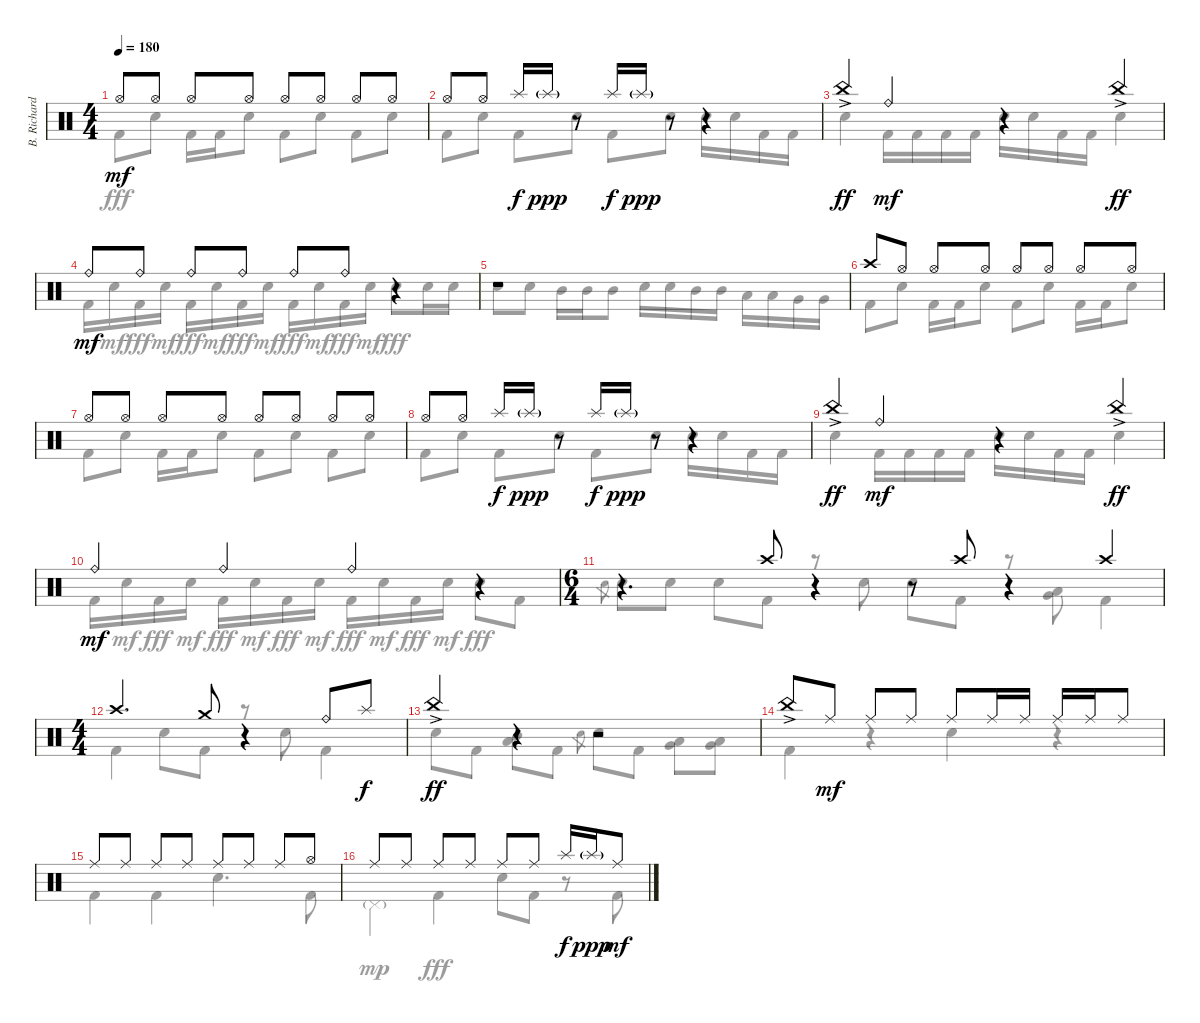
\track ("B. Richardson Drums" "B. Richard") {instrument percussion}
\staff {score}
\articulation defaults
\voice
\ts (4 4)
\tempo 180
\clef neutral
\ks c "Hi-Hat (open)".8{dy mf} "Hi-Hat (open)".8 "Hi-Hat (open)".8 "Hi-Hat (open)".8 "Hi-Hat (open)".8 "Hi-Hat (open)".8 "Hi-Hat (open)".8 "Hi-Hat (open)".8
|
"Hi-Hat (open)".8 "Hi-Hat (open)".8 "Splash (hit)".16{dy f} "Splash (hit)"{g}.16{dy ppp} r.8 "Splash (hit)".16{dy f} "Splash (hit)"{g}.16{dy ppp} r.8 r.4 |
"China (hit)"{ac}.4{dy ff} "Ride (bell)".4{dy mf} r.4 "China (hit)"{ac}.4{dy ff} |
"Ride (bell)".8{dy mf} "Ride (bell)".8 "Ride (bell)".8 "Ride (bell)".8 "Ride (bell)".8 "Ride (bell)".8 r.4 |
r.1 |
"Crash high (hit)".8 "Hi-Hat (open)".8 "Hi-Hat (open)".8 "Hi-Hat (open)".8 "Hi-Hat (open)".8 "Hi-Hat (open)".8 "Hi-Hat (open)".8 "Hi-Hat (open)".8 |
"Hi-Hat (open)".8 "Hi-Hat (open)".8 "Hi-Hat (open)".8 "Hi-Hat (open)".8 "Hi-Hat (open)".8 "Hi-Hat (open)".8 "Hi-Hat (open)".8 "Hi-Hat (open)".8 |
"Hi-Hat (open)".8 "Hi-Hat (open)".8 "Splash (hit)".16{dy f} "Splash (hit)"{g}.16{dy ppp} r.8 "Splash (hit)".16{dy f} "Splash (hit)"{g}.16{dy ppp} r.8 r.4 |
"China (hit)"{ac}.4{dy ff} "Ride (bell)".4{dy mf} r.4 "China (hit)"{ac}.4{dy ff} |
"Ride (bell)".4{dy mf} "Ride (bell)".4 "Ride (bell)".4 r.4 |
\ts (6 4)
r.4{d} "Crash high (hit)".8 r.4 r.8 "Crash high (hit)".8 r.4 "Crash high (hit)".4 |
\ts (4 4)
"Crash high (hit)".4{d} "Crash medium (hit)".8 r.4 "Ride (bell)".8 "Splash (hit)".8{dy f} |
"China (hit)"{ac}.4{dy ff} r.4 r.2 |
"China (hit)"{ac}.8 "Ride (middle)".8{dy mf} "Ride (middle)".8 "Ride (middle)".8 "Ride (middle)".8 "Ride (middle)".16 "Ride (middle)".16 "Ride (middle)".16 "Ride (middle)".16 "Ride (middle)".8 |
"Ride (middle)".8 "Ride (middle)".8 "Ride (middle)".8 "Ride (middle)".8 "Ride (middle)".8 "Ride (middle)".8 "Ride (middle)".8 "Hi-Hat (open)".8 |
"Ride (middle)".8 "Ride (middle)".8 "Ride (middle)".8 "Ride (middle)".8 "Ride (middle)".8 "Ride (middle)".8 "Splash (hit)".16{dy f} "Splash (hit)"{g}.16{dy ppp} "Ride (middle)".8{dy mf}
\voice
\clef neutral
\ottava regular
\simile none
\ks c "Kick (hit) 2".8{dy fff} "Electric Snare (hit)".8 "Kick (hit) 2".16 "Kick (hit) 2".16 "Electric Snare (hit)".8 "Kick (hit) 2".8 "Electric Snare (hit)".8 "Kick (hit) 2".8 "Electric Snare (hit)".8
|
"Kick (hit) 2".8 "Electric Snare (hit)".8 "Kick (hit) 2".8 "Electric Snare (hit)".8 "Kick (hit) 2".8 "Electric Snare (hit)".8 "Electric Snare (hit)".16 "Electric Snare (hit)".16 "Kick (hit) 2".16 "Kick (hit) 2".16 |
"Electric Snare (hit)".4 "Kick (hit) 2".16 "Kick (hit) 2".16 "Kick (hit) 2".16 "Kick (hit) 2".16 "Electric Snare (hit)".16 "Electric Snare (hit)".16 "Kick (hit) 2".16 "Kick (hit) 2".16 "Electric Snare (hit)".4 |
"Kick (hit) 2".16 "Electric Snare (hit)".16{dy mf} "Kick (hit) 2".16{dy fff} "Electric Snare (hit)".16{dy mf} "Kick (hit) 2".16{dy fff} "Electric Snare (hit)".16{dy mf} "Kick (hit) 2".16{dy fff} "Electric Snare (hit)".16{dy mf} "Kick (hit) 2".16{dy fff} "Electric Snare (hit)".16{dy mf} "Kick (hit) 2".16{dy fff} "Electric Snare (hit)".16{dy mf} "Electric Snare (hit)".8{dy fff} "Electric Snare (hit)".16 "Electric Snare (hit)".16 |
"Electric Snare (hit)".8 "Electric Snare (hit)".8 "Mid Tom (hit)".16 "Mid Tom (hit)".16 "Mid Tom (hit)".8 "Electric Snare (hit)".16 "Electric Snare (hit)".16 "Mid Tom (hit)".16 "Mid Tom (hit)".16 "Low Tom (hit)".16 "Low Tom (hit)".16 "Very Low Tom (hit)".16 "Very Low Tom (hit)".16 |
"Kick (hit) 2".8 "Electric Snare (hit)".8 "Kick (hit) 2".16 "Kick (hit) 2".16 "Electric Snare (hit)".8 "Kick (hit) 2".8 "Electric Snare (hit)".8 "Kick (hit) 2".16 "Kick (hit) 2".16 "Electric Snare (hit)".8 |
"Kick (hit) 2".8 "Electric Snare (hit)".8 "Kick (hit) 2".16 "Kick (hit) 2".16 "Electric Snare (hit)".8 "Kick (hit) 2".8 "Electric Snare (hit)".8 "Kick (hit) 2".8 "Electric Snare (hit)".8 |
"Kick (hit) 2".8 "Electric Snare (hit)".8 "Kick (hit) 2".8 "Electric Snare (hit)".8 "Kick (hit) 2".8 "Electric Snare (hit)".8 "Electric Snare (hit)".16 "Electric Snare (hit)".16 "Kick (hit) 2".16 "Kick (hit) 2".16 |
"Electric Snare (hit)".4 "Kick (hit) 2".16 "Kick (hit) 2".16 "Kick (hit) 2".16 "Kick (hit) 2".16 "Electric Snare (hit)".16 "Electric Snare (hit)".16 "Kick (hit) 2".16 "Kick (hit) 2".16 "Electric Snare (hit)".4 |
"Kick (hit) 2".16 "Electric Snare (hit)".16{dy mf} "Kick (hit) 2".16{dy fff} "Electric Snare (hit)".16{dy mf} "Kick (hit) 2".16{dy fff} "Electric Snare (hit)".16{dy mf} "Kick (hit) 2".16{dy fff} "Electric Snare (hit)".16{dy mf} "Kick (hit) 2".16{dy fff} "Electric Snare (hit)".16{dy mf} "Kick (hit) 2".16{dy fff} "Electric Snare (hit)".16{dy mf} "Electric Snare (hit)".8{dy fff} "Kick (hit) 2".8 |
"Electric Snare (hit)".8{gr} "Electric Snare (hit)".8 "Electric Snare (hit)".8 "Electric Snare (hit)".8 "Kick (hit) 2".8 r.8 "Electric Snare (hit)".8 "Electric Snare (hit)".8 "Kick (hit) 2".8 r.8 ("Low Tom (hit)" "Very Low Tom (hit)").8 "Kick (hit) 2".4 |
"Kick (hit) 2".4 "Electric Snare (hit)".8 "Kick (hit) 2".8 r.8 "Electric Snare (hit)".8 "Kick (hit) 2".4 |
"Electric Snare (hit)".8 "Kick (hit) 2".8 ("Mid Tom (hit)" "Low Tom (hit)").8 "Kick (hit) 2".8 "Electric Snare (hit)".8{gr} "Electric Snare (hit)".8 "Kick (hit) 2".8 ("Low Tom (hit)" "Very Low Tom (hit)").8 ("Low Tom (hit)" "Very Low Tom (hit)").8 |
"Kick (hit) 2".4 r.4 "Electric Snare (hit)".4 r.4 |
"Kick (hit) 2".4 "Kick (hit) 2".4 "Electric Snare (hit)".4{d} "Kick (hit) 2".8 |
"Pedal Hi-Hat (hit)"{g}.4{dy mp} "Kick (hit) 2".4{dy fff} "Electric Snare (hit)".8 "Kick (hit) 2".8 r.8 "Kick (hit) 2".8
